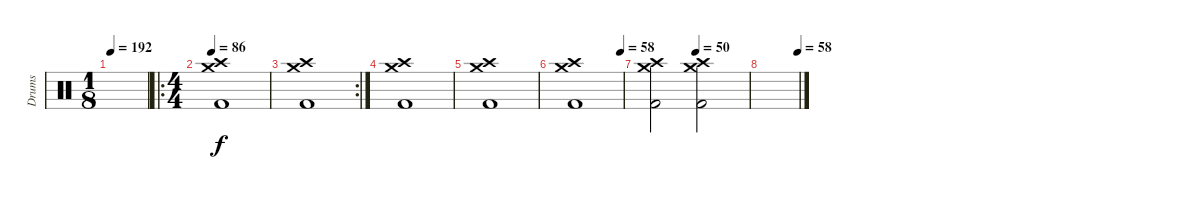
\track ("Drums" "Drums") {instrument percussion}
\staff {score}
\articulation defaults
\ts (1 8)
\tempo 192
\tempo 86
\tempo 192
\clef neutral
\ks c
|
\ro
\ts (4 4)
\tempo 86
("Crash medium (hit)" "Crash high (hit)" "Kick (hit) 2").1 |
\rc 2
("Crash medium (hit)" "Crash high (hit)" "Kick (hit) 2").1 |
("Crash medium (hit)" "Crash high (hit)" "Kick (hit) 2").1 |
("Crash medium (hit)" "Crash high (hit)" "Kick (hit) 2").1 |
\tempo (58 0.96875)
("Crash medium (hit)" "Crash high (hit)" "Kick (hit) 2").1 |
\tempo (50 0.46875)
("Crash medium (hit)" "Crash high (hit)" "Kick (hit) 2").2 ("Crash medium (hit)" "Crash high (hit)" "Kick (hit) 2").2 |
\tempo (58 0.984375)
